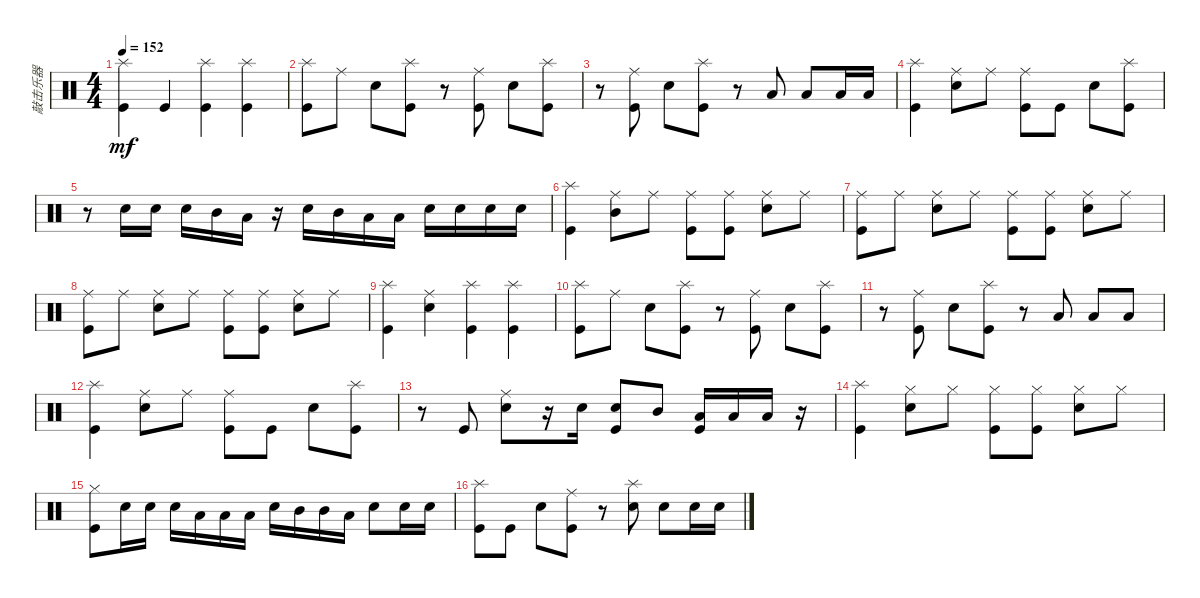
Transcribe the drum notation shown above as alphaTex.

\track ("敲击乐器" "敲击乐器") {instrument percussion}
\staff {score}
\articulation defaults
\ts (4 4)
\tempo 152
\clef neutral
\ks c
("Splash (hit)" "Kick (hit)").4{dy mf} "Kick (hit)".4 ("Splash (hit)" "Kick (hit)").4 ("Splash (hit)" "Kick (hit)").4 |
("Splash (hit)" "Kick (hit)").8 "Ride (middle)".8 "Snare (hit) 2".8 ("Splash (hit)" "Kick (hit)").8 r.8 ("Ride (middle)" "Kick (hit)").8 "Snare (hit) 2".8 ("Splash (hit)" "Kick (hit)").8 |
r.8 ("Ride (middle)" "Kick (hit)").8 "Snare (hit) 2".8 ("Splash (hit)" "Kick (hit)").8 r.8 "Low Tom (hit)".8 "Low Tom (hit)".8 "Low Floor Tom (hit)".16 "Low Floor Tom (hit)".16 |
("Splash (hit)" "Kick (hit)").4 ("Ride (middle)" "Snare (hit) 2").8 "Ride (middle)".8 ("Ride (middle)" "Kick (hit)").8 "Kick (hit)".8 "Snare (hit) 2".8 ("Splash (hit)" "Kick (hit)").8 |
r.8 "Snare (hit) 2".16 "Snare (hit) 2".16 "Snare (hit) 2".16 "Mid Tom (hit)".16 "Low Tom (hit)".16 r.16 "Snare (hit) 2".16 "Mid Tom (hit)".16 "Low Tom (hit)".16 "Low Floor Tom (hit)".16 "Snare (hit) 2".16 "Snare (hit) 2".16 "Snare (hit) 2".16 "Snare (hit) 2".16 |
("Splash (hit)" "Kick (hit)").4 ("Ride (middle)" "Mid Tom (hit)").8 "Ride (middle)".8 ("Ride (middle)" "Kick (hit)").8 ("Ride (middle)" "Kick (hit)").8 ("Ride (middle)" "Snare (hit) 2").8 "Ride (middle)".8 |
("Ride (middle)" "Kick (hit)").8 "Ride (middle)".8 ("Ride (middle)" "Snare (hit) 2").8 "Ride (middle)".8 ("Ride (middle)" "Kick (hit)").8 ("Ride (middle)" "Kick (hit)").8 ("Ride (middle)" "Snare (hit) 2").8 "Ride (middle)".8 |
("Ride (middle)" "Kick (hit)").8 "Ride (middle)".8 ("Ride (middle)" "Snare (hit) 2").8 "Ride (middle)".8 ("Ride (middle)" "Kick (hit)").8 ("Ride (middle)" "Kick (hit)").8 ("Ride (middle)" "Snare (hit) 2").8 "Ride (middle)".8 |
("Splash (hit)" "Kick (hit)").4 ("Ride (middle)" "Snare (hit) 2").4 ("Splash (hit)" "Kick (hit)").4 ("Splash (hit)" "Kick (hit)").4 |
("Splash (hit)" "Kick (hit)").8 "Ride (middle)".8 "Snare (hit) 2".8 ("Splash (hit)" "Kick (hit)").8 r.8 ("Ride (middle)" "Kick (hit)").8 "Snare (hit) 2".8 ("Splash (hit)" "Kick (hit)").8 |
r.8 ("Ride (middle)" "Kick (hit)").8 "Snare (hit) 2".8 ("Splash (hit)" "Kick (hit)").8 r.8 "Low Tom (hit)".8 "Low Tom (hit)".8 "Low Floor Tom (hit)".8 |
("Splash (hit)" "Kick (hit)").4 ("Ride (middle)" "Snare (hit) 2").8 "Ride (middle)".8 ("Ride (middle)" "Kick (hit)").8 "Kick (hit)".8 "Snare (hit) 2".8 ("Splash (hit)" "Kick (hit)").8 |
r.8 "Kick (hit)".8 ("Ride (middle)" "Snare (hit) 2").8 r.16 "Snare (hit) 2".16 ("Snare (hit) 2" "Kick (hit)").8 "Mid Tom (hit)".8 ("Low Tom (hit)" "Kick (hit)").16 "Low Tom (hit)".16 "Low Floor Tom (hit)".16 r.16 |
("Splash (hit)" "Kick (hit)").4 ("Hi-Hat (closed)" "Snare (hit) 2").8 "Hi-Hat (closed)".8 ("Hi-Hat (closed)" "Kick (hit)").8 ("Hi-Hat (closed)" "Kick (hit)").8 ("Hi-Hat (closed)" "Snare (hit) 2").8 "Hi-Hat (closed)".8 |
("Hi-Hat (closed)" "Kick (hit)").8 "Snare (hit) 2".16 "Snare (hit) 2".16 "Snare (hit) 2".16 "Low Tom (hit)".16 "Low Tom (hit)".16 "Low Floor Tom (hit)".16 "Snare (hit) 2".16 "Mid Tom (hit)".16 "Mid Tom (hit)".16 "Low Tom (hit)".16 "Snare (hit) 2".8 "Snare (hit) 2".16 "Snare (hit) 2".16 |
("Splash (hit)" "Kick (hit)").8 "Kick (hit)".8 "Snare (hit) 2".8 ("Ride (middle)" "Kick (hit)").8 r.8 ("Splash (hit)" "Snare (hit) 2").8 "Snare (hit) 2".8 "Snare (hit) 2".16 "Snare (hit) 2".16
